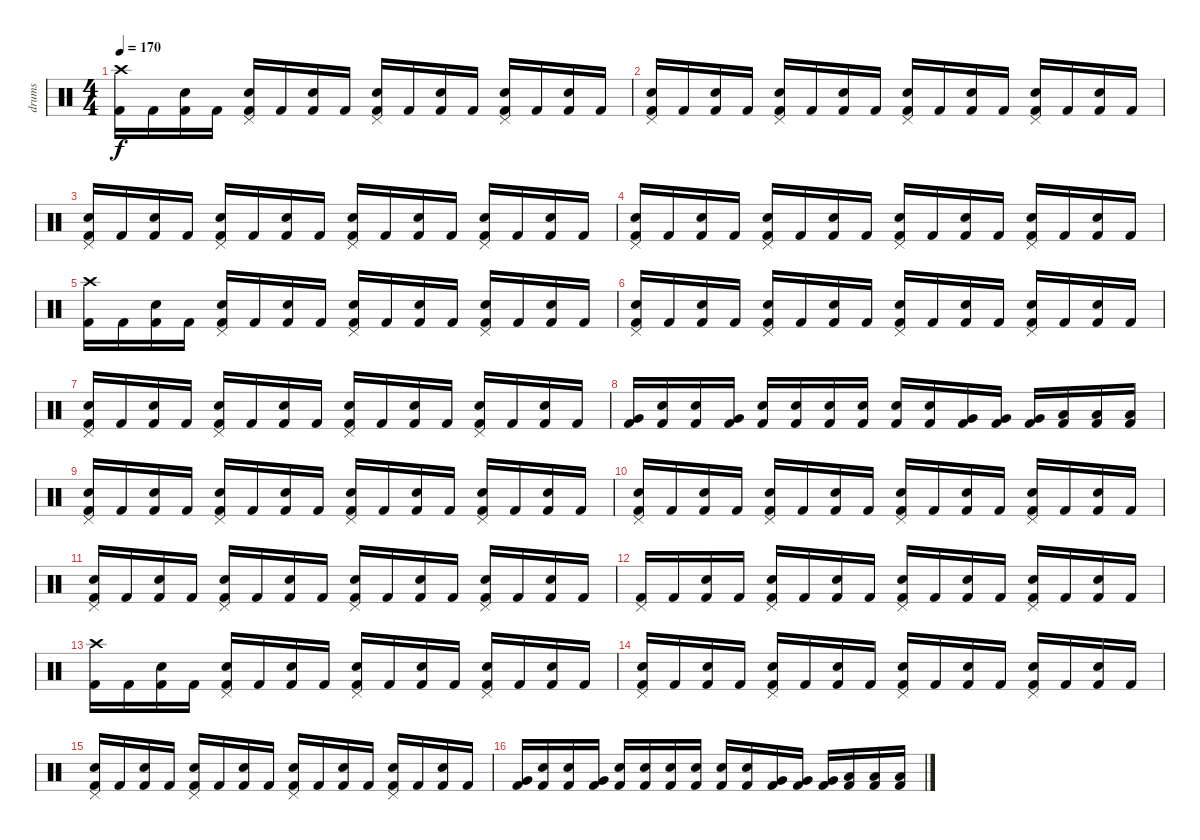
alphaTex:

\track ("drums" "drums") {instrument percussion}
\staff {score}
\articulation defaults
\ts (4 4)
\tempo 170
\clef neutral
\ks c
("Crash high (hit)" "Kick (hit) 2").16{dy f} "Kick (hit) 2".16 ("Electric Snare (hit)" "Kick (hit) 2").16 "Kick (hit) 2".16 ("Pedal Hi-Hat (hit)" "Electric Snare (hit)" "Kick (hit) 2").16 "Kick (hit) 2".16 ("Electric Snare (hit)" "Kick (hit) 2").16 "Kick (hit) 2".16 ("Pedal Hi-Hat (hit)" "Electric Snare (hit)" "Kick (hit) 2").16 "Kick (hit) 2".16 ("Electric Snare (hit)" "Kick (hit) 2").16 "Kick (hit) 2".16 ("Pedal Hi-Hat (hit)" "Electric Snare (hit)" "Kick (hit) 2").16 "Kick (hit) 2".16 ("Electric Snare (hit)" "Kick (hit) 2").16 "Kick (hit) 2".16 |
("Pedal Hi-Hat (hit)" "Electric Snare (hit)" "Kick (hit) 2").16 "Kick (hit) 2".16 ("Electric Snare (hit)" "Kick (hit) 2").16 "Kick (hit) 2".16 ("Pedal Hi-Hat (hit)" "Electric Snare (hit)" "Kick (hit) 2").16 "Kick (hit) 2".16 ("Electric Snare (hit)" "Kick (hit) 2").16 "Kick (hit) 2".16 ("Pedal Hi-Hat (hit)" "Electric Snare (hit)" "Kick (hit) 2").16 "Kick (hit) 2".16 ("Electric Snare (hit)" "Kick (hit) 2").16 "Kick (hit) 2".16 ("Pedal Hi-Hat (hit)" "Electric Snare (hit)" "Kick (hit) 2").16 "Kick (hit) 2".16 ("Electric Snare (hit)" "Kick (hit) 2").16 "Kick (hit) 2".16 |
("Pedal Hi-Hat (hit)" "Electric Snare (hit)" "Kick (hit) 2").16 "Kick (hit) 2".16 ("Electric Snare (hit)" "Kick (hit) 2").16 "Kick (hit) 2".16 ("Pedal Hi-Hat (hit)" "Electric Snare (hit)" "Kick (hit) 2").16 "Kick (hit) 2".16 ("Electric Snare (hit)" "Kick (hit) 2").16 "Kick (hit) 2".16 ("Pedal Hi-Hat (hit)" "Electric Snare (hit)" "Kick (hit) 2").16 "Kick (hit) 2".16 ("Electric Snare (hit)" "Kick (hit) 2").16 "Kick (hit) 2".16 ("Pedal Hi-Hat (hit)" "Electric Snare (hit)" "Kick (hit) 2").16 "Kick (hit) 2".16 ("Electric Snare (hit)" "Kick (hit) 2").16 "Kick (hit) 2".16 |
("Pedal Hi-Hat (hit)" "Electric Snare (hit)" "Kick (hit) 2").16 "Kick (hit) 2".16 ("Electric Snare (hit)" "Kick (hit) 2").16 "Kick (hit) 2".16 ("Pedal Hi-Hat (hit)" "Electric Snare (hit)" "Kick (hit) 2").16 "Kick (hit) 2".16 ("Electric Snare (hit)" "Kick (hit) 2").16 "Kick (hit) 2".16 ("Pedal Hi-Hat (hit)" "Electric Snare (hit)" "Kick (hit) 2").16 "Kick (hit) 2".16 ("Electric Snare (hit)" "Kick (hit) 2").16 "Kick (hit) 2".16 ("Pedal Hi-Hat (hit)" "Electric Snare (hit)" "Kick (hit) 2").16 "Kick (hit) 2".16 ("Electric Snare (hit)" "Kick (hit) 2").16 "Kick (hit) 2".16 |
("Crash high (hit)" "Kick (hit) 2").16 "Kick (hit) 2".16 ("Electric Snare (hit)" "Kick (hit) 2").16 "Kick (hit) 2".16 ("Pedal Hi-Hat (hit)" "Electric Snare (hit)" "Kick (hit) 2").16 "Kick (hit) 2".16 ("Electric Snare (hit)" "Kick (hit) 2").16 "Kick (hit) 2".16 ("Pedal Hi-Hat (hit)" "Electric Snare (hit)" "Kick (hit) 2").16 "Kick (hit) 2".16 ("Electric Snare (hit)" "Kick (hit) 2").16 "Kick (hit) 2".16 ("Pedal Hi-Hat (hit)" "Electric Snare (hit)" "Kick (hit) 2").16 "Kick (hit) 2".16 ("Electric Snare (hit)" "Kick (hit) 2").16 "Kick (hit) 2".16 |
("Pedal Hi-Hat (hit)" "Electric Snare (hit)" "Kick (hit) 2").16 "Kick (hit) 2".16 ("Electric Snare (hit)" "Kick (hit) 2").16 "Kick (hit) 2".16 ("Pedal Hi-Hat (hit)" "Electric Snare (hit)" "Kick (hit) 2").16 "Kick (hit) 2".16 ("Electric Snare (hit)" "Kick (hit) 2").16 "Kick (hit) 2".16 ("Pedal Hi-Hat (hit)" "Electric Snare (hit)" "Kick (hit) 2").16 "Kick (hit) 2".16 ("Electric Snare (hit)" "Kick (hit) 2").16 "Kick (hit) 2".16 ("Pedal Hi-Hat (hit)" "Electric Snare (hit)" "Kick (hit) 2").16 "Kick (hit) 2".16 ("Electric Snare (hit)" "Kick (hit) 2").16 "Kick (hit) 2".16 |
("Pedal Hi-Hat (hit)" "Electric Snare (hit)" "Kick (hit) 2").16 "Kick (hit) 2".16 ("Electric Snare (hit)" "Kick (hit) 2").16 "Kick (hit) 2".16 ("Pedal Hi-Hat (hit)" "Electric Snare (hit)" "Kick (hit) 2").16 "Kick (hit) 2".16 ("Electric Snare (hit)" "Kick (hit) 2").16 "Kick (hit) 2".16 ("Pedal Hi-Hat (hit)" "Electric Snare (hit)" "Kick (hit) 2").16 "Kick (hit) 2".16 ("Electric Snare (hit)" "Kick (hit) 2").16 "Kick (hit) 2".16 ("Pedal Hi-Hat (hit)" "Electric Snare (hit)" "Kick (hit) 2").16 "Kick (hit) 2".16 ("Electric Snare (hit)" "Kick (hit) 2").16 "Kick (hit) 2".16 |
("Very Low Tom (hit)" "Kick (hit) 2").16 ("Electric Snare (hit)" "Kick (hit) 2").16 ("Electric Snare (hit)" "Kick (hit) 2").16 ("Very Low Tom (hit)" "Kick (hit) 2").16 ("Electric Snare (hit)" "Kick (hit) 2").16 ("Electric Snare (hit)" "Kick (hit) 2").16 ("Electric Snare (hit)" "Kick (hit) 2").16 ("Electric Snare (hit)" "Kick (hit) 2").16 ("Electric Snare (hit)" "Kick (hit) 2").16 ("Electric Snare (hit)" "Kick (hit) 2").16 ("Very Low Tom (hit)" "Kick (hit) 2").16 ("Very Low Tom (hit)" "Kick (hit) 2").16 ("Very Low Tom (hit)" "Kick (hit) 2").16 ("Low Floor Tom (hit)" "Kick (hit) 2").16 ("Low Floor Tom (hit)" "Kick (hit) 2").16 ("Low Floor Tom (hit)" "Kick (hit) 2").16 |
("Pedal Hi-Hat (hit)" "Electric Snare (hit)" "Kick (hit) 2").16 "Kick (hit) 2".16 ("Electric Snare (hit)" "Kick (hit) 2").16 "Kick (hit) 2".16 ("Pedal Hi-Hat (hit)" "Electric Snare (hit)" "Kick (hit) 2").16 "Kick (hit) 2".16 ("Electric Snare (hit)" "Kick (hit) 2").16 "Kick (hit) 2".16 ("Pedal Hi-Hat (hit)" "Electric Snare (hit)" "Kick (hit) 2").16 "Kick (hit) 2".16 ("Electric Snare (hit)" "Kick (hit) 2").16 "Kick (hit) 2".16 ("Pedal Hi-Hat (hit)" "Electric Snare (hit)" "Kick (hit) 2").16 "Kick (hit) 2".16 ("Electric Snare (hit)" "Kick (hit) 2").16 "Kick (hit) 2".16 |
("Pedal Hi-Hat (hit)" "Electric Snare (hit)" "Kick (hit) 2").16 "Kick (hit) 2".16 ("Electric Snare (hit)" "Kick (hit) 2").16 "Kick (hit) 2".16 ("Pedal Hi-Hat (hit)" "Electric Snare (hit)" "Kick (hit) 2").16 "Kick (hit) 2".16 ("Electric Snare (hit)" "Kick (hit) 2").16 "Kick (hit) 2".16 ("Pedal Hi-Hat (hit)" "Electric Snare (hit)" "Kick (hit) 2").16 "Kick (hit) 2".16 ("Electric Snare (hit)" "Kick (hit) 2").16 "Kick (hit) 2".16 ("Pedal Hi-Hat (hit)" "Electric Snare (hit)" "Kick (hit) 2").16 "Kick (hit) 2".16 ("Electric Snare (hit)" "Kick (hit) 2").16 "Kick (hit) 2".16 |
("Pedal Hi-Hat (hit)" "Electric Snare (hit)" "Kick (hit) 2").16 "Kick (hit) 2".16 ("Electric Snare (hit)" "Kick (hit) 2").16 "Kick (hit) 2".16 ("Pedal Hi-Hat (hit)" "Electric Snare (hit)" "Kick (hit) 2").16 "Kick (hit) 2".16 ("Electric Snare (hit)" "Kick (hit) 2").16 "Kick (hit) 2".16 ("Pedal Hi-Hat (hit)" "Electric Snare (hit)" "Kick (hit) 2").16 "Kick (hit) 2".16 ("Electric Snare (hit)" "Kick (hit) 2").16 "Kick (hit) 2".16 ("Pedal Hi-Hat (hit)" "Electric Snare (hit)" "Kick (hit) 2").16 "Kick (hit) 2".16 ("Electric Snare (hit)" "Kick (hit) 2").16 "Kick (hit) 2".16 |
("Pedal Hi-Hat (hit)" "Kick (hit) 2").16 "Kick (hit) 2".16 ("Electric Snare (hit)" "Kick (hit) 2").16 "Kick (hit) 2".16 ("Pedal Hi-Hat (hit)" "Electric Snare (hit)" "Kick (hit) 2").16 "Kick (hit) 2".16 ("Electric Snare (hit)" "Kick (hit) 2").16 "Kick (hit) 2".16 ("Pedal Hi-Hat (hit)" "Electric Snare (hit)" "Kick (hit) 2").16 "Kick (hit) 2".16 ("Electric Snare (hit)" "Kick (hit) 2").16 "Kick (hit) 2".16 ("Pedal Hi-Hat (hit)" "Electric Snare (hit)" "Kick (hit) 2").16 "Kick (hit) 2".16 ("Electric Snare (hit)" "Kick (hit) 2").16 "Kick (hit) 2".16 |
("Crash high (hit)" "Kick (hit) 2").16 "Kick (hit) 2".16 ("Electric Snare (hit)" "Kick (hit) 2").16 "Kick (hit) 2".16 ("Pedal Hi-Hat (hit)" "Electric Snare (hit)" "Kick (hit) 2").16 "Kick (hit) 2".16 ("Electric Snare (hit)" "Kick (hit) 2").16 "Kick (hit) 2".16 ("Pedal Hi-Hat (hit)" "Electric Snare (hit)" "Kick (hit) 2").16 "Kick (hit) 2".16 ("Electric Snare (hit)" "Kick (hit) 2").16 "Kick (hit) 2".16 ("Pedal Hi-Hat (hit)" "Electric Snare (hit)" "Kick (hit) 2").16 "Kick (hit) 2".16 ("Electric Snare (hit)" "Kick (hit) 2").16 "Kick (hit) 2".16 |
("Pedal Hi-Hat (hit)" "Electric Snare (hit)" "Kick (hit) 2").16 "Kick (hit) 2".16 ("Electric Snare (hit)" "Kick (hit) 2").16 "Kick (hit) 2".16 ("Pedal Hi-Hat (hit)" "Electric Snare (hit)" "Kick (hit) 2").16 "Kick (hit) 2".16 ("Electric Snare (hit)" "Kick (hit) 2").16 "Kick (hit) 2".16 ("Pedal Hi-Hat (hit)" "Electric Snare (hit)" "Kick (hit) 2").16 "Kick (hit) 2".16 ("Electric Snare (hit)" "Kick (hit) 2").16 "Kick (hit) 2".16 ("Pedal Hi-Hat (hit)" "Electric Snare (hit)" "Kick (hit) 2").16 "Kick (hit) 2".16 ("Electric Snare (hit)" "Kick (hit) 2").16 "Kick (hit) 2".16 |
("Pedal Hi-Hat (hit)" "Electric Snare (hit)" "Kick (hit) 2").16 "Kick (hit) 2".16 ("Electric Snare (hit)" "Kick (hit) 2").16 "Kick (hit) 2".16 ("Pedal Hi-Hat (hit)" "Electric Snare (hit)" "Kick (hit) 2").16 "Kick (hit) 2".16 ("Electric Snare (hit)" "Kick (hit) 2").16 "Kick (hit) 2".16 ("Pedal Hi-Hat (hit)" "Electric Snare (hit)" "Kick (hit) 2").16 "Kick (hit) 2".16 ("Electric Snare (hit)" "Kick (hit) 2").16 "Kick (hit) 2".16 ("Pedal Hi-Hat (hit)" "Electric Snare (hit)" "Kick (hit) 2").16 "Kick (hit) 2".16 ("Electric Snare (hit)" "Kick (hit) 2").16 "Kick (hit) 2".16 |
("Very Low Tom (hit)" "Kick (hit) 2").16 ("Electric Snare (hit)" "Kick (hit) 2").16 ("Electric Snare (hit)" "Kick (hit) 2").16 ("Very Low Tom (hit)" "Kick (hit) 2").16 ("Electric Snare (hit)" "Kick (hit) 2").16 ("Electric Snare (hit)" "Kick (hit) 2").16 ("Electric Snare (hit)" "Kick (hit) 2").16 ("Electric Snare (hit)" "Kick (hit) 2").16 ("Electric Snare (hit)" "Kick (hit) 2").16 ("Electric Snare (hit)" "Kick (hit) 2").16 ("Very Low Tom (hit)" "Kick (hit) 2").16 ("Very Low Tom (hit)" "Kick (hit) 2").16 ("Very Low Tom (hit)" "Kick (hit) 2").16 ("Low Floor Tom (hit)" "Kick (hit) 2").16 ("Low Floor Tom (hit)" "Kick (hit) 2").16 ("Low Floor Tom (hit)" "Kick (hit) 2").16
